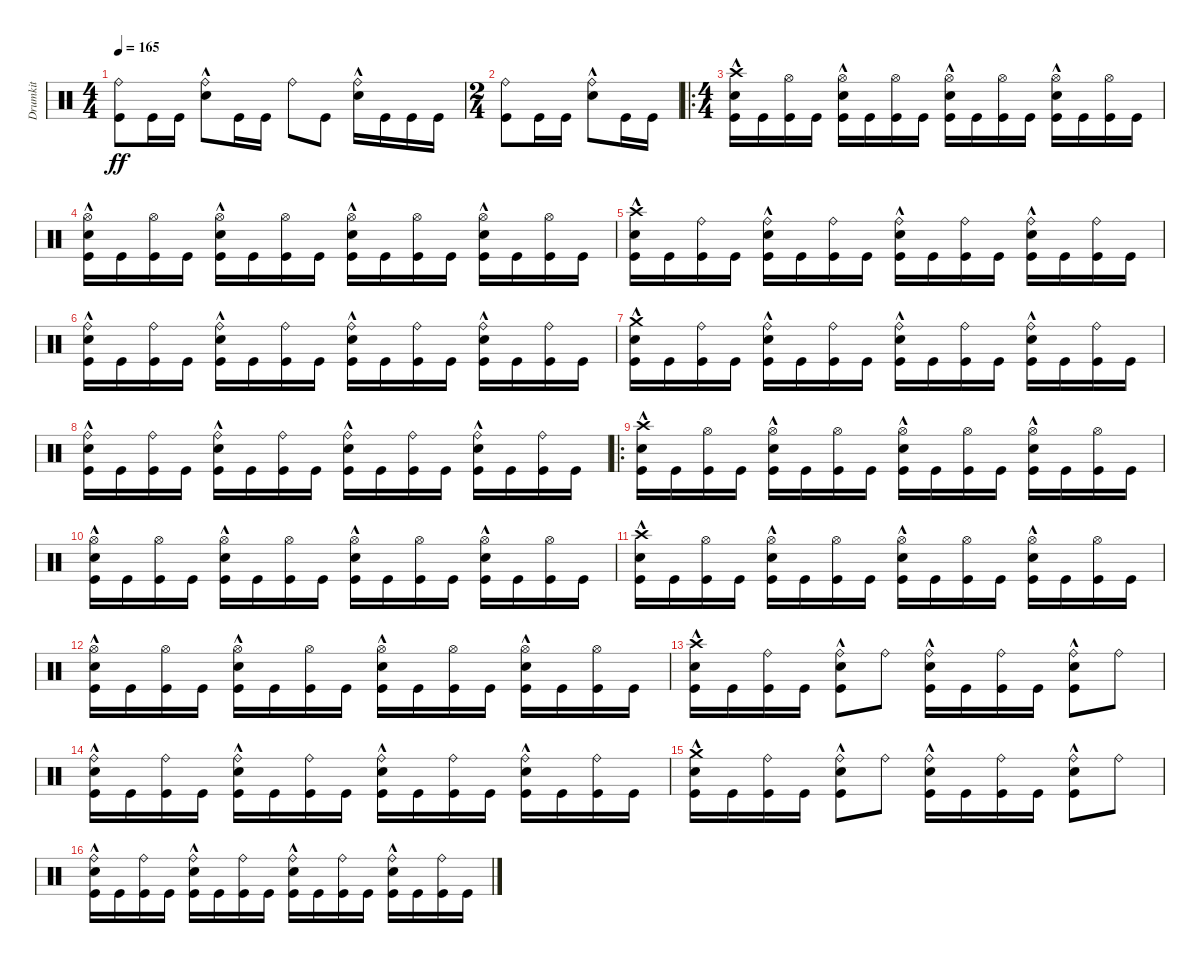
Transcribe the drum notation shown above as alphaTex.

\track ("Drumkit" "Drumkit") {instrument percussion}
\staff {score}
\articulation defaults
\ts (4 4)
\tempo 165
\clef neutral
\ks c
("Kick (hit)" "Ride (bell)").8{dy ff} "Kick (hit)".16 "Kick (hit)".16 ("Snare (hit) 2"{hac} "Ride (bell)").8 "Kick (hit)".16 "Kick (hit)".16 "Ride (bell)".8 "Kick (hit)".8 ("Snare (hit) 2"{hac} "Ride (bell)").16 "Kick (hit)".16 "Kick (hit)".16 "Kick (hit)".16 |
\ts (2 4)
("Kick (hit)" "Ride (bell)").8 "Kick (hit)".16 "Kick (hit)".16 ("Snare (hit) 2"{hac} "Ride (bell)").8 "Kick (hit)".16 "Kick (hit)".16 |
\ro
\ts (4 4)
("Kick (hit)" "Crash high (hit)" "Snare (hit) 2"{hac}).16 "Kick (hit)".16 ("Kick (hit)" "Hi-Hat (open)").16 "Kick (hit)".16 ("Kick (hit)" "Snare (hit) 2"{hac} "Hi-Hat (open)").16 "Kick (hit)".16 ("Kick (hit)" "Hi-Hat (open)").16 "Kick (hit)".16 ("Kick (hit)" "Snare (hit) 2"{hac} "Hi-Hat (open)").16 "Kick (hit)".16 ("Kick (hit)" "Hi-Hat (open)").16 "Kick (hit)".16 ("Kick (hit)" "Snare (hit) 2"{hac} "Hi-Hat (open)").16 "Kick (hit)".16 ("Kick (hit)" "Hi-Hat (open)").16 "Kick (hit)".16 |
("Kick (hit)" "Snare (hit) 2"{hac} "Hi-Hat (open)").16 "Kick (hit)".16 ("Kick (hit)" "Hi-Hat (open)").16 "Kick (hit)".16 ("Kick (hit)" "Snare (hit) 2"{hac} "Hi-Hat (open)").16 "Kick (hit)".16 ("Kick (hit)" "Hi-Hat (open)").16 "Kick (hit)".16 ("Kick (hit)" "Snare (hit) 2"{hac} "Hi-Hat (open)").16 "Kick (hit)".16 ("Kick (hit)" "Hi-Hat (open)").16 "Kick (hit)".16 ("Kick (hit)" "Snare (hit) 2"{hac} "Hi-Hat (open)").16 "Kick (hit)".16 ("Kick (hit)" "Hi-Hat (open)").16 "Kick (hit)".16 |
("Kick (hit)" "Crash high (hit)" "Snare (hit) 2"{hac}).16 "Kick (hit)".16 ("Kick (hit)" "Ride (bell)").16 "Kick (hit)".16 ("Kick (hit)" "Snare (hit) 2"{hac} "Ride (bell)").16 "Kick (hit)".16 ("Kick (hit)" "Ride (bell)").16 "Kick (hit)".16 ("Kick (hit)" "Snare (hit) 2"{hac} "Ride (bell)").16 "Kick (hit)".16 ("Kick (hit)" "Ride (bell)").16 "Kick (hit)".16 ("Kick (hit)" "Snare (hit) 2"{hac} "Ride (bell)").16 "Kick (hit)".16 ("Kick (hit)" "Ride (bell)").16 "Kick (hit)".16 |
("Kick (hit)" "Snare (hit) 2"{hac} "Ride (bell)").16 "Kick (hit)".16 ("Kick (hit)" "Ride (bell)").16 "Kick (hit)".16 ("Kick (hit)" "Snare (hit) 2"{hac} "Ride (bell)").16 "Kick (hit)".16 ("Kick (hit)" "Ride (bell)").16 "Kick (hit)".16 ("Kick (hit)" "Snare (hit) 2"{hac} "Ride (bell)").16 "Kick (hit)".16 ("Kick (hit)" "Ride (bell)").16 "Kick (hit)".16 ("Kick (hit)" "Snare (hit) 2"{hac} "Ride (bell)").16 "Kick (hit)".16 ("Kick (hit)" "Ride (bell)").16 "Kick (hit)".16 |
("Kick (hit)" "Snare (hit) 2"{hac} "Crash medium (hit)").16 "Kick (hit)".16 ("Kick (hit)" "Ride (bell)").16 "Kick (hit)".16 ("Kick (hit)" "Snare (hit) 2"{hac} "Ride (bell)").16 "Kick (hit)".16 ("Kick (hit)" "Ride (bell)").16 "Kick (hit)".16 ("Kick (hit)" "Snare (hit) 2"{hac} "Ride (bell)").16 "Kick (hit)".16 ("Kick (hit)" "Ride (bell)").16 "Kick (hit)".16 ("Kick (hit)" "Snare (hit) 2"{hac} "Ride (bell)").16 "Kick (hit)".16 ("Kick (hit)" "Ride (bell)").16 "Kick (hit)".16 |
("Kick (hit)" "Snare (hit) 2"{hac} "Ride (bell)").16 "Kick (hit)".16 ("Kick (hit)" "Ride (bell)").16 "Kick (hit)".16 ("Kick (hit)" "Snare (hit) 2"{hac} "Ride (bell)").16 "Kick (hit)".16 ("Kick (hit)" "Ride (bell)").16 "Kick (hit)".16 ("Kick (hit)" "Snare (hit) 2"{hac} "Ride (bell)").16 "Kick (hit)".16 ("Kick (hit)" "Ride (bell)").16 "Kick (hit)".16 ("Kick (hit)" "Snare (hit) 2"{hac} "Ride (bell)").16 "Kick (hit)".16 ("Kick (hit)" "Ride (bell)").16 "Kick (hit)".16 |
\ro
("Kick (hit)" "Crash high (hit)" "Snare (hit) 2"{hac}).16 "Kick (hit)".16 ("Kick (hit)" "Hi-Hat (open)").16 "Kick (hit)".16 ("Kick (hit)" "Snare (hit) 2"{hac} "Hi-Hat (open)").16 "Kick (hit)".16 ("Kick (hit)" "Hi-Hat (open)").16 "Kick (hit)".16 ("Kick (hit)" "Snare (hit) 2"{hac} "Hi-Hat (open)").16 "Kick (hit)".16 ("Kick (hit)" "Hi-Hat (open)").16 "Kick (hit)".16 ("Kick (hit)" "Snare (hit) 2"{hac} "Hi-Hat (open)").16 "Kick (hit)".16 ("Kick (hit)" "Hi-Hat (open)").16 "Kick (hit)".16 |
("Kick (hit)" "Snare (hit) 2"{hac} "Hi-Hat (open)").16 "Kick (hit)".16 ("Kick (hit)" "Hi-Hat (open)").16 "Kick (hit)".16 ("Kick (hit)" "Snare (hit) 2"{hac} "Hi-Hat (open)").16 "Kick (hit)".16 ("Kick (hit)" "Hi-Hat (open)").16 "Kick (hit)".16 ("Kick (hit)" "Snare (hit) 2"{hac} "Hi-Hat (open)").16 "Kick (hit)".16 ("Kick (hit)" "Hi-Hat (open)").16 "Kick (hit)".16 ("Kick (hit)" "Snare (hit) 2"{hac} "Hi-Hat (open)").16 "Kick (hit)".16 ("Kick (hit)" "Hi-Hat (open)").16 "Kick (hit)".16 |
("Kick (hit)" "Crash high (hit)" "Snare (hit) 2"{hac}).16 "Kick (hit)".16 ("Kick (hit)" "Hi-Hat (open)").16 "Kick (hit)".16 ("Kick (hit)" "Snare (hit) 2"{hac} "Hi-Hat (open)").16 "Kick (hit)".16 ("Kick (hit)" "Hi-Hat (open)").16 "Kick (hit)".16 ("Kick (hit)" "Snare (hit) 2"{hac} "Hi-Hat (open)").16 "Kick (hit)".16 ("Kick (hit)" "Hi-Hat (open)").16 "Kick (hit)".16 ("Kick (hit)" "Snare (hit) 2"{hac} "Hi-Hat (open)").16 "Kick (hit)".16 ("Kick (hit)" "Hi-Hat (open)").16 "Kick (hit)".16 |
("Kick (hit)" "Snare (hit) 2"{hac} "Hi-Hat (open)").16 "Kick (hit)".16 ("Kick (hit)" "Hi-Hat (open)").16 "Kick (hit)".16 ("Kick (hit)" "Snare (hit) 2"{hac} "Hi-Hat (open)").16 "Kick (hit)".16 ("Kick (hit)" "Hi-Hat (open)").16 "Kick (hit)".16 ("Kick (hit)" "Snare (hit) 2"{hac} "Hi-Hat (open)").16 "Kick (hit)".16 ("Kick (hit)" "Hi-Hat (open)").16 "Kick (hit)".16 ("Kick (hit)" "Snare (hit) 2"{hac} "Hi-Hat (open)").16 "Kick (hit)".16 ("Kick (hit)" "Hi-Hat (open)").16 "Kick (hit)".16 |
("Kick (hit)" "Crash high (hit)" "Snare (hit) 2"{hac}).16 "Kick (hit)".16 ("Kick (hit)" "Ride (bell)").16 "Kick (hit)".16 ("Kick (hit)" "Snare (hit) 2"{hac} "Ride (bell)").8 "Ride (bell)".8 ("Kick (hit)" "Snare (hit) 2"{hac} "Ride (bell)").16 "Kick (hit)".16 ("Kick (hit)" "Ride (bell)").16 "Kick (hit)".16 ("Snare (hit) 2"{hac} "Ride (bell)" "Kick (hit)").8 "Ride (bell)".8 |
("Kick (hit)" "Snare (hit) 2"{hac} "Ride (bell)").16 "Kick (hit)".16 ("Kick (hit)" "Ride (bell)").16 "Kick (hit)".16 ("Kick (hit)" "Snare (hit) 2"{hac} "Ride (bell)").16 "Kick (hit)".16 ("Kick (hit)" "Ride (bell)").16 "Kick (hit)".16 ("Kick (hit)" "Snare (hit) 2"{hac} "Ride (bell)").16 "Kick (hit)".16 ("Kick (hit)" "Ride (bell)").16 "Kick (hit)".16 ("Kick (hit)" "Snare (hit) 2"{hac} "Ride (bell)").16 "Kick (hit)".16 ("Kick (hit)" "Ride (bell)").16 "Kick (hit)".16 |
("Kick (hit)" "Snare (hit) 2"{hac} "Crash medium (hit)").16 "Kick (hit)".16 ("Kick (hit)" "Ride (bell)").16 "Kick (hit)".16 ("Snare (hit) 2"{hac} "Ride (bell)" "Kick (hit)").8 "Ride (bell)".8 ("Kick (hit)" "Snare (hit) 2"{hac} "Ride (bell)").16 "Kick (hit)".16 ("Kick (hit)" "Ride (bell)").16 "Kick (hit)".16 ("Kick (hit)" "Snare (hit) 2"{hac} "Ride (bell)").8 "Ride (bell)".8 |
("Kick (hit)" "Snare (hit) 2"{hac} "Ride (bell)").16 "Kick (hit)".16 ("Kick (hit)" "Ride (bell)").16 "Kick (hit)".16 ("Kick (hit)" "Snare (hit) 2"{hac} "Ride (bell)").16 "Kick (hit)".16 ("Kick (hit)" "Ride (bell)").16 "Kick (hit)".16 ("Kick (hit)" "Snare (hit) 2"{hac} "Ride (bell)").16 "Kick (hit)".16 ("Kick (hit)" "Ride (bell)").16 "Kick (hit)".16 ("Kick (hit)" "Snare (hit) 2"{hac} "Ride (bell)").16 "Kick (hit)".16 ("Kick (hit)" "Ride (bell)").16 "Kick (hit)".16
